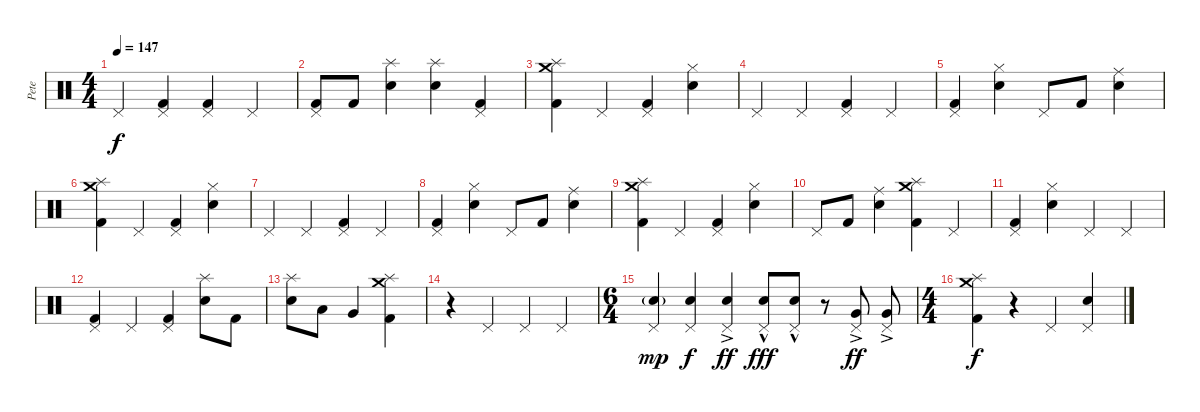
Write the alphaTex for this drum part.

\track ("Pete" "Pete") {instrument percussion}
\staff {score}
\articulation defaults
\ts (4 4)
\tempo 147
\clef neutral
\ks c "Pedal Hi-Hat (hit)".4{dy f}
("Pedal Hi-Hat (hit)" "Kick (hit) 2").4 ("Pedal Hi-Hat (hit)" "Kick (hit) 2").4 "Pedal Hi-Hat (hit)".4 |
("Pedal Hi-Hat (hit)" "Kick (hit) 2").8 "Kick (hit) 2".8 ("Splash (hit)" "Electric Snare (hit)").4 ("Splash (hit)" "Electric Snare (hit)").4 ("Pedal Hi-Hat (hit)" "Kick (hit) 2").4 |
("Crash medium (hit)" "Splash (hit)" "Kick (hit) 2").4 "Pedal Hi-Hat (hit)".4 ("Pedal Hi-Hat (hit)" "Kick (hit) 2").4 ("Hi-Hat (closed)" "Electric Snare (hit)").4 |
"Pedal Hi-Hat (hit)".4 "Pedal Hi-Hat (hit)".4 ("Pedal Hi-Hat (hit)" "Kick (hit) 2").4 "Pedal Hi-Hat (hit)".4 |
("Pedal Hi-Hat (hit)" "Kick (hit) 2").4 ("Hi-Hat (closed)" "Electric Snare (hit)").4 "Pedal Hi-Hat (hit)".8 "Kick (hit) 2".8 ("Ride (middle)" "Electric Snare (hit)").4 |
("Crash medium (hit)" "Splash (hit)" "Kick (hit) 2").4 "Pedal Hi-Hat (hit)".4 ("Pedal Hi-Hat (hit)" "Kick (hit) 2").4 ("Hi-Hat (closed)" "Electric Snare (hit)").4 |
"Pedal Hi-Hat (hit)".4 "Pedal Hi-Hat (hit)".4 ("Pedal Hi-Hat (hit)" "Kick (hit) 2").4 "Pedal Hi-Hat (hit)".4 |
("Pedal Hi-Hat (hit)" "Kick (hit) 2").4 ("Hi-Hat (closed)" "Electric Snare (hit)").4 "Pedal Hi-Hat (hit)".8 "Kick (hit) 2".8 ("Ride (middle)" "Electric Snare (hit)").4 |
("Crash medium (hit)" "Splash (hit)" "Kick (hit) 2").4 "Pedal Hi-Hat (hit)".4 ("Pedal Hi-Hat (hit)" "Kick (hit) 2").4 ("Hi-Hat (closed)" "Electric Snare (hit)").4 |
"Pedal Hi-Hat (hit)".8 "Kick (hit) 2".8 ("Ride (middle)" "Electric Snare (hit)").4 ("Crash medium (hit)" "Splash (hit)" "Kick (hit) 2").4 "Pedal Hi-Hat (hit)".4 |
("Pedal Hi-Hat (hit)" "Kick (hit) 2").4 ("Hi-Hat (closed)" "Electric Snare (hit)").4 "Pedal Hi-Hat (hit)".4 "Pedal Hi-Hat (hit)".4 |
("Pedal Hi-Hat (hit)" "Kick (hit) 2").4 "Pedal Hi-Hat (hit)".4 ("Pedal Hi-Hat (hit)" "Kick (hit) 2").4 ("Splash (hit)" "Electric Snare (hit)").8 "Kick (hit) 2".8 |
("Splash (hit)" "Electric Snare (hit)").8 "Low Tom (hit)".8 "Very Low Tom (hit)".4 ("Crash medium (hit)" "Splash (hit)" "Kick (hit) 2").4 |
r.4 "Pedal Hi-Hat (hit)".4 "Pedal Hi-Hat (hit)".4 "Pedal Hi-Hat (hit)".4 |
\ts (6 4)
("Pedal Hi-Hat (hit)" "Electric Snare (hit)"{g}).4{dy mp} ("Pedal Hi-Hat (hit)" "Electric Snare (hit)").4{dy f} ("Pedal Hi-Hat (hit)" "Electric Snare (hit)"{ac}).4{dy ff} ("Pedal Hi-Hat (hit)" "Electric Snare (hit)"{hac}).8{dy fff} ("Pedal Hi-Hat (hit)" "Electric Snare (hit)"{hac}).8 r.8 ("Pedal Hi-Hat (hit)" "Very Low Tom (hit)"{ac}).8{dy ff} ("Pedal Hi-Hat (hit)" "Very Low Tom (hit)"{ac}).8 |
\ts (4 4)
("Crash medium (hit)" "Splash (hit)" "Kick (hit) 2").4{dy f} r.4 "Pedal Hi-Hat (hit)".4 ("Pedal Hi-Hat (hit)" "Electric Snare (hit)").4
